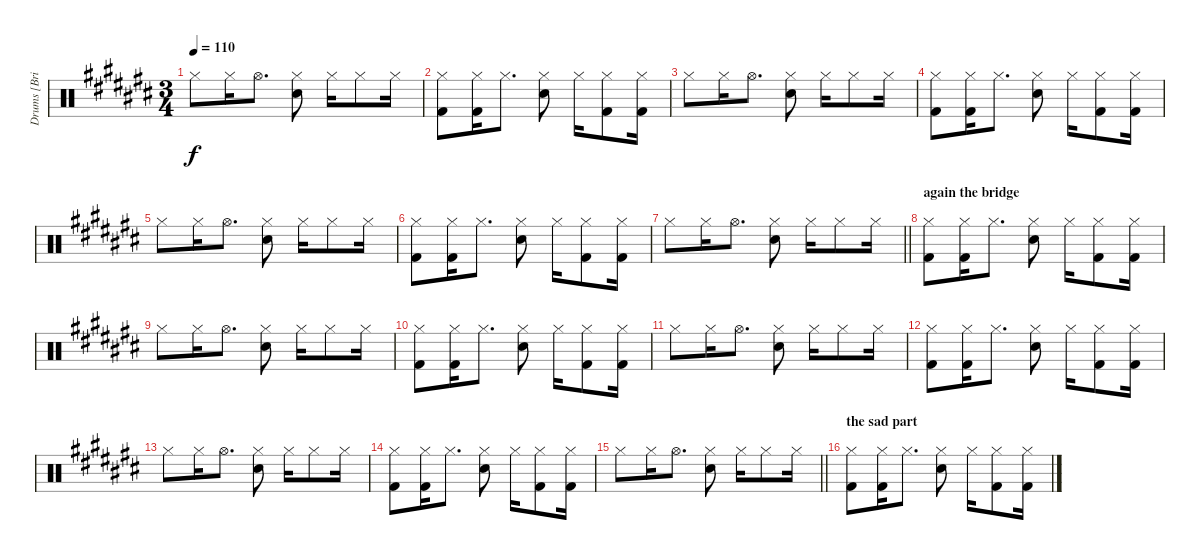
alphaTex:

\track ("Drums [Brian \"Brain\" Mantia]" "Drums [Bri") {instrument percussion}
\staff {score}
\articulation defaults
\ts (3 4)
\tempo 110
\clef neutral
\ks c# "Hi-Hat (closed)".8{dy f} "Hi-Hat (closed)".16 "Hi-Hat (open)".8{d}
("Hi-Hat (closed)" "Electric Snare (hit)").8 "Hi-Hat (closed)".16 "Hi-Hat (closed)".8 "Hi-Hat (closed)".16 |
("Hi-Hat (closed)" "Kick (hit) 2").8 ("Hi-Hat (closed)" "Kick (hit) 2").16 "Hi-Hat (closed)".8{d} ("Hi-Hat (closed)" "Electric Snare (hit)").8 "Hi-Hat (closed)".16 ("Hi-Hat (closed)" "Kick (hit) 2").8 ("Hi-Hat (closed)" "Kick (hit) 2").16 |
"Hi-Hat (closed)".8 "Hi-Hat (closed)".16 "Hi-Hat (open)".8{d} ("Hi-Hat (closed)" "Electric Snare (hit)").8 "Hi-Hat (closed)".16 "Hi-Hat (closed)".8 "Hi-Hat (closed)".16 |
("Hi-Hat (closed)" "Kick (hit) 2").8 ("Hi-Hat (closed)" "Kick (hit) 2").16 "Hi-Hat (closed)".8{d} ("Hi-Hat (closed)" "Electric Snare (hit)").8 "Hi-Hat (closed)".16 ("Hi-Hat (closed)" "Kick (hit) 2").8 ("Hi-Hat (closed)" "Kick (hit) 2").16 |
"Hi-Hat (closed)".8 "Hi-Hat (closed)".16 "Hi-Hat (open)".8{d} ("Hi-Hat (closed)" "Electric Snare (hit)").8 "Hi-Hat (closed)".16 "Hi-Hat (closed)".8 "Hi-Hat (closed)".16 |
("Hi-Hat (closed)" "Kick (hit) 2").8 ("Hi-Hat (closed)" "Kick (hit) 2").16 "Hi-Hat (closed)".8{d} ("Hi-Hat (closed)" "Electric Snare (hit)").8 "Hi-Hat (closed)".16 ("Hi-Hat (closed)" "Kick (hit) 2").8 ("Hi-Hat (closed)" "Kick (hit) 2").16 |
\barLineRight lightlight "Hi-Hat (closed)".8 "Hi-Hat (closed)".16 "Hi-Hat (open)".8{d}
("Hi-Hat (closed)" "Electric Snare (hit)").8 "Hi-Hat (closed)".16 "Hi-Hat (closed)".8 "Hi-Hat (closed)".16 |
\section ("" "again the bridge")
("Hi-Hat (closed)" "Kick (hit) 2").8 ("Hi-Hat (closed)" "Kick (hit) 2").16 "Hi-Hat (closed)".8{d} ("Hi-Hat (closed)" "Electric Snare (hit)").8 "Hi-Hat (closed)".16 ("Hi-Hat (closed)" "Kick (hit) 2").8 ("Hi-Hat (closed)" "Kick (hit) 2").16 |
"Hi-Hat (closed)".8 "Hi-Hat (closed)".16 "Hi-Hat (open)".8{d} ("Hi-Hat (closed)" "Electric Snare (hit)").8 "Hi-Hat (closed)".16 "Hi-Hat (closed)".8 "Hi-Hat (closed)".16 |
("Hi-Hat (closed)" "Kick (hit) 2").8 ("Hi-Hat (closed)" "Kick (hit) 2").16 "Hi-Hat (closed)".8{d} ("Hi-Hat (closed)" "Electric Snare (hit)").8 "Hi-Hat (closed)".16 ("Hi-Hat (closed)" "Kick (hit) 2").8 ("Hi-Hat (closed)" "Kick (hit) 2").16 |
"Hi-Hat (closed)".8 "Hi-Hat (closed)".16 "Hi-Hat (open)".8{d} ("Hi-Hat (closed)" "Electric Snare (hit)").8 "Hi-Hat (closed)".16 "Hi-Hat (closed)".8 "Hi-Hat (closed)".16 |
("Hi-Hat (closed)" "Kick (hit) 2").8 ("Hi-Hat (closed)" "Kick (hit) 2").16 "Hi-Hat (closed)".8{d} ("Hi-Hat (closed)" "Electric Snare (hit)").8 "Hi-Hat (closed)".16 ("Hi-Hat (closed)" "Kick (hit) 2").8 ("Hi-Hat (closed)" "Kick (hit) 2").16 |
"Hi-Hat (closed)".8 "Hi-Hat (closed)".16 "Hi-Hat (open)".8{d} ("Hi-Hat (closed)" "Electric Snare (hit)").8 "Hi-Hat (closed)".16 "Hi-Hat (closed)".8 "Hi-Hat (closed)".16 |
("Hi-Hat (closed)" "Kick (hit) 2").8 ("Hi-Hat (closed)" "Kick (hit) 2").16 "Hi-Hat (closed)".8{d} ("Hi-Hat (closed)" "Electric Snare (hit)").8 "Hi-Hat (closed)".16 ("Hi-Hat (closed)" "Kick (hit) 2").8 ("Hi-Hat (closed)" "Kick (hit) 2").16 |
\barLineRight lightlight "Hi-Hat (closed)".8 "Hi-Hat (closed)".16 "Hi-Hat (open)".8{d}
("Hi-Hat (closed)" "Electric Snare (hit)").8 "Hi-Hat (closed)".16 "Hi-Hat (closed)".8 "Hi-Hat (closed)".16 |
\section ("" "the sad part")
("Hi-Hat (closed)" "Kick (hit) 2").8 ("Hi-Hat (closed)" "Kick (hit) 2").16 "Hi-Hat (closed)".8{d} ("Hi-Hat (closed)" "Electric Snare (hit)").8 "Hi-Hat (closed)".16 ("Hi-Hat (closed)" "Kick (hit) 2").8 ("Hi-Hat (closed)" "Kick (hit) 2").16
